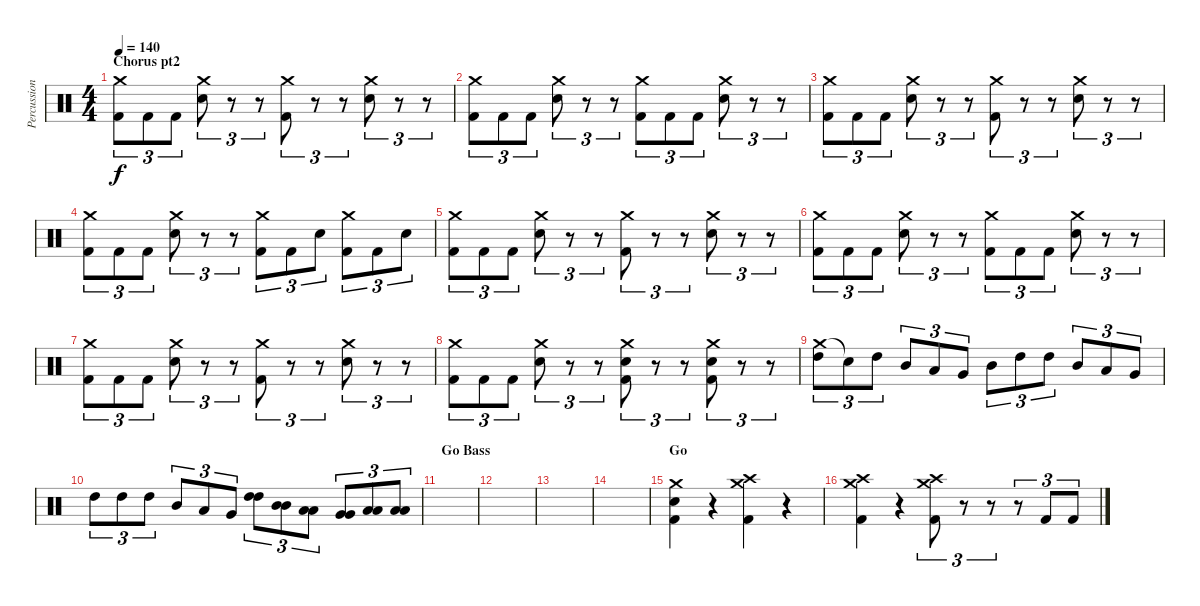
\track ("Percussion" "Percussion") {instrument percussion}
\staff {score}
\articulation defaults
\ts (4 4)
\section ("" "Chorus pt2")
\tempo 140
\clef neutral
\ks c
("Crash medium (hit)" "Kick (hit) 2").8{tu (3 2) dy f} "Kick (hit) 2".8{tu (3 2)} "Kick (hit) 2".8{tu (3 2)} ("Crash medium (hit)" "Electric Snare (hit)").8{tu (3 2)} r.8{tu (3 2)} r.8{tu (3 2)} ("Crash medium (hit)" "Kick (hit) 2").8{tu (3 2)} r.8{tu (3 2)} r.8{tu (3 2)} ("Crash medium (hit)" "Electric Snare (hit)").8{tu (3 2)} r.8{tu (3 2)} r.8{tu (3 2)} |
("Crash medium (hit)" "Kick (hit) 2").8{tu (3 2)} "Kick (hit) 2".8{tu (3 2)} "Kick (hit) 2".8{tu (3 2)} ("Crash medium (hit)" "Electric Snare (hit)").8{tu (3 2)} r.8{tu (3 2)} r.8{tu (3 2)} ("Crash medium (hit)" "Kick (hit) 2").8{tu (3 2)} "Kick (hit) 2".8{tu (3 2)} "Kick (hit) 2".8{tu (3 2)} ("Crash medium (hit)" "Electric Snare (hit)").8{tu (3 2)} r.8{tu (3 2)} r.8{tu (3 2)} |
("Crash medium (hit)" "Kick (hit) 2").8{tu (3 2)} "Kick (hit) 2".8{tu (3 2)} "Kick (hit) 2".8{tu (3 2)} ("Crash medium (hit)" "Electric Snare (hit)").8{tu (3 2)} r.8{tu (3 2)} r.8{tu (3 2)} ("Crash medium (hit)" "Kick (hit) 2").8{tu (3 2)} r.8{tu (3 2)} r.8{tu (3 2)} ("Crash medium (hit)" "Electric Snare (hit)").8{tu (3 2)} r.8{tu (3 2)} r.8{tu (3 2)} |
("Crash medium (hit)" "Kick (hit) 2").8{tu (3 2)} "Kick (hit) 2".8{tu (3 2)} "Kick (hit) 2".8{tu (3 2)} ("Crash medium (hit)" "Electric Snare (hit)").8{tu (3 2)} r.8{tu (3 2)} r.8{tu (3 2)} ("Crash medium (hit)" "Kick (hit) 2").8{tu (3 2)} "Kick (hit) 2".8{tu (3 2)} "Electric Snare (hit)".8{tu (3 2)} ("Crash medium (hit)" "Kick (hit) 2").8{tu (3 2)} "Kick (hit) 2".8{tu (3 2)} "Electric Snare (hit)".8{tu (3 2)} |
("Crash medium (hit)" "Kick (hit) 2").8{tu (3 2)} "Kick (hit) 2".8{tu (3 2)} "Kick (hit) 2".8{tu (3 2)} ("Crash medium (hit)" "Electric Snare (hit)").8{tu (3 2)} r.8{tu (3 2)} r.8{tu (3 2)} ("Crash medium (hit)" "Kick (hit) 2").8{tu (3 2)} r.8{tu (3 2)} r.8{tu (3 2)} ("Crash medium (hit)" "Electric Snare (hit)").8{tu (3 2)} r.8{tu (3 2)} r.8{tu (3 2)} |
("Crash medium (hit)" "Kick (hit) 2").8{tu (3 2)} "Kick (hit) 2".8{tu (3 2)} "Kick (hit) 2".8{tu (3 2)} ("Crash medium (hit)" "Electric Snare (hit)").8{tu (3 2)} r.8{tu (3 2)} r.8{tu (3 2)} ("Crash medium (hit)" "Kick (hit) 2").8{tu (3 2)} "Kick (hit) 2".8{tu (3 2)} "Kick (hit) 2".8{tu (3 2)} ("Crash medium (hit)" "Electric Snare (hit)").8{tu (3 2)} r.8{tu (3 2)} r.8{tu (3 2)} |
("Crash medium (hit)" "Kick (hit) 2").8{tu (3 2)} "Kick (hit) 2".8{tu (3 2)} "Kick (hit) 2".8{tu (3 2)} ("Crash medium (hit)" "Electric Snare (hit)").8{tu (3 2)} r.8{tu (3 2)} r.8{tu (3 2)} ("Crash medium (hit)" "Kick (hit) 2").8{tu (3 2)} r.8{tu (3 2)} r.8{tu (3 2)} ("Crash medium (hit)" "Electric Snare (hit)").8{tu (3 2)} r.8{tu (3 2)} r.8{tu (3 2)} |
("Crash medium (hit)" "Kick (hit) 2").8{tu (3 2)} "Kick (hit) 2".8{tu (3 2)} "Kick (hit) 2".8{tu (3 2)} ("Crash medium (hit)" "Electric Snare (hit)").8{tu (3 2)} r.8{tu (3 2)} r.8{tu (3 2)} ("Crash medium (hit)" "Electric Snare (hit)" "Kick (hit) 2").8{tu (3 2)} r.8{tu (3 2)} r.8{tu (3 2)} ("Crash medium (hit)" "Electric Snare (hit)" "Kick (hit) 2").8{tu (3 2)} r.8{tu (3 2)} r.8{tu (3 2)} |
("Crash medium (hit)" "High Tom (hit)").8{tu (3 2)} "Snare (hit)"{t}.8{tu (3 2)} "High Tom (hit)".8{tu (3 2)} "Mid Tom (hit)".8{tu (3 2)} "Low Tom (hit)".8{tu (3 2)} "Very Low Tom (hit)".8{tu (3 2)} "Mid Tom (hit)".8{tu (3 2)} "High Tom (hit)".8{tu (3 2)} "High Tom (hit)".8{tu (3 2)} "Mid Tom (hit)".8{tu (3 2)} "Low Tom (hit)".8{tu (3 2)} "Very Low Tom (hit)".8{tu (3 2)} |
"High Tom (hit)".8{tu (3 2)} "High Tom (hit)".8{tu (3 2)} "High Tom (hit)".8{tu (3 2)} "Mid Tom (hit)".8{tu (3 2)} "Low Tom (hit)".8{tu (3 2)} "Very Low Tom (hit)".8{tu (3 2)} ("High Tom (hit)" "High Tom (hit)").8{tu (3 2)} ("Mid Tom (hit)" "Mid Tom (hit)").8{tu (3 2)} ("Low Tom (hit)" "Low Tom (hit)").8{tu (3 2)} ("Very Low Tom (hit)" "Very Low Tom (hit)").8{tu (3 2)} ("Low Floor Tom (hit)" "Low Floor Tom (hit)").8{tu (3 2)} ("Low Floor Tom (hit)" "Low Floor Tom (hit)").8{tu (3 2)} |
\section ("" "Go Bass")
|
|
|
|
\section ("" "Go")
("Crash medium (hit)" "Kick (hit) 2" "Electric Snare (hit)").4 r.4 ("Crash medium (hit)" "Kick (hit) 2" "Crash high (hit)").4 r.4 |
("Crash medium (hit)" "Crash high (hit)" "Kick (hit) 2").4 r.4 ("Crash medium (hit)" "Kick (hit) 2" "Crash high (hit)").8{tu (3 2)} r.8{tu (3 2)} r.8{tu (3 2)} r.8{tu (3 2)} "Kick (hit) 2".8{tu (3 2)} "Kick (hit) 2".8{tu (3 2)}
